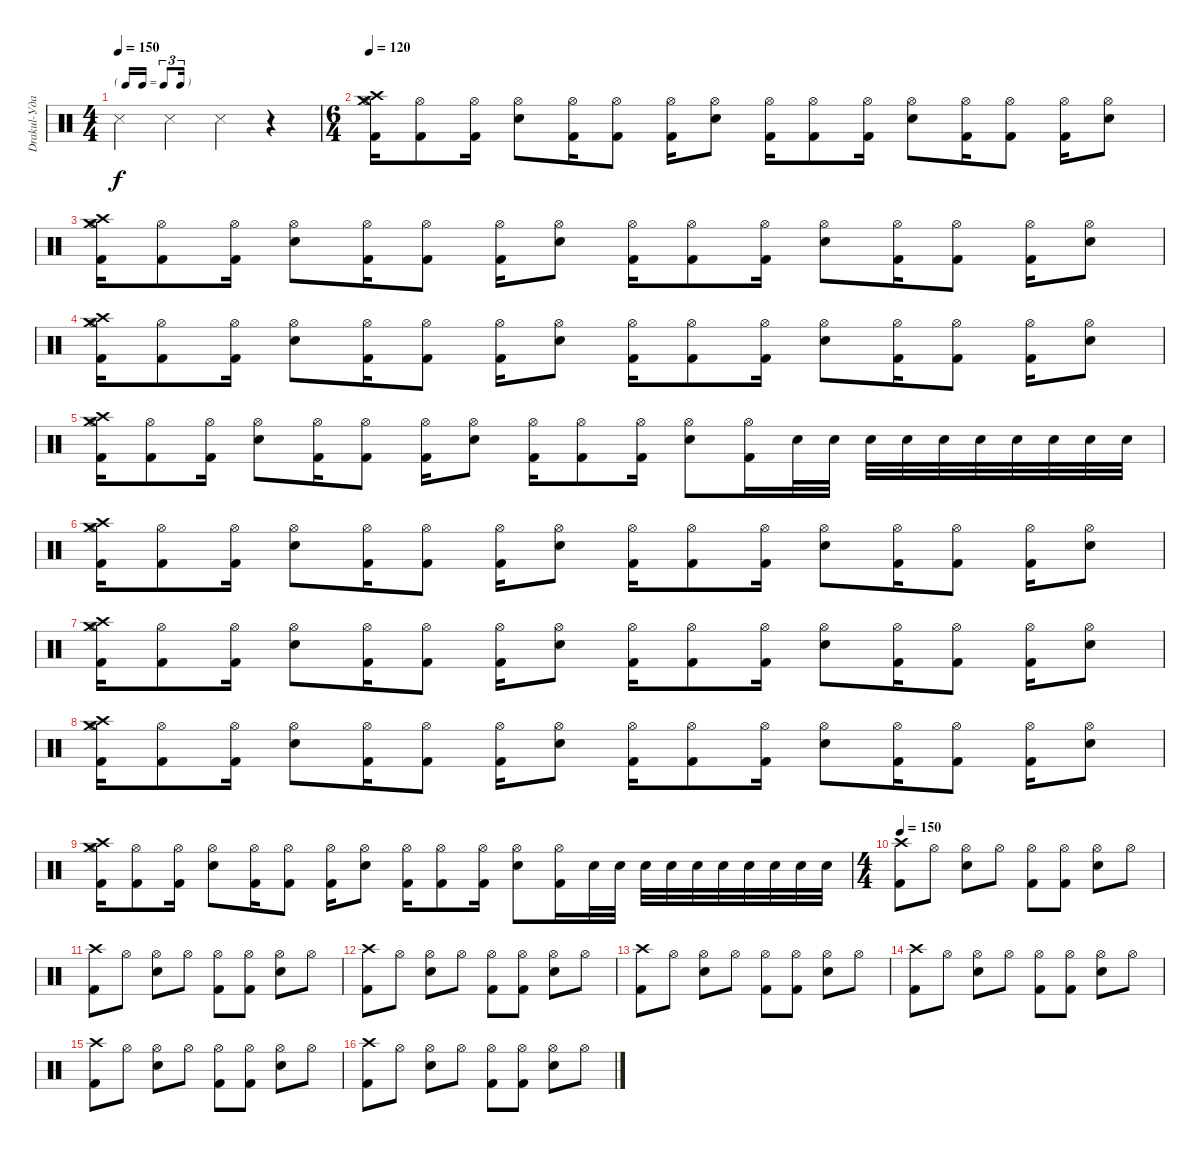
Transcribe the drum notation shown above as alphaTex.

\track ("Drakul-Ударные " "Drakul-Уда") {instrument percussion}
\staff {score}
\articulation defaults
\ts (4 4)
\tf triplet16th
\tempo 150
\clef neutral
\ks c "Snare (side stick) 3".4{dy f} "Snare (side stick) 3".4 "Snare (side stick) 3".4
r.4 |
\ts (6 4)
\tempo 120
("Kick (hit) 2" "Hi-Hat (open)" "Crash high (hit)" "Crash medium (hit)").16 ("Kick (hit) 2" "Hi-Hat (open)").8 ("Kick (hit) 2" "Hi-Hat (open)").16 ("Electric Snare (hit)" "Hi-Hat (open)").8 ("Kick (hit) 2" "Hi-Hat (open)").16 ("Kick (hit) 2" "Hi-Hat (open)").8 ("Kick (hit) 2" "Hi-Hat (open)").16 ("Electric Snare (hit)" "Hi-Hat (open)").8 ("Kick (hit) 2" "Hi-Hat (open)").16 ("Kick (hit) 2" "Hi-Hat (open)").8 ("Kick (hit) 2" "Hi-Hat (open)").16 ("Electric Snare (hit)" "Hi-Hat (open)").8 ("Kick (hit) 2" "Hi-Hat (open)").16 ("Kick (hit) 2" "Hi-Hat (open)").8 ("Kick (hit) 2" "Hi-Hat (open)").16 ("Electric Snare (hit)" "Hi-Hat (open)").8 |
("Kick (hit) 2" "Hi-Hat (open)" "Crash high (hit)" "Crash medium (hit)").16 ("Kick (hit) 2" "Hi-Hat (open)").8 ("Kick (hit) 2" "Hi-Hat (open)").16 ("Electric Snare (hit)" "Hi-Hat (open)").8 ("Kick (hit) 2" "Hi-Hat (open)").16 ("Kick (hit) 2" "Hi-Hat (open)").8 ("Kick (hit) 2" "Hi-Hat (open)").16 ("Electric Snare (hit)" "Hi-Hat (open)").8 ("Kick (hit) 2" "Hi-Hat (open)").16 ("Kick (hit) 2" "Hi-Hat (open)").8 ("Kick (hit) 2" "Hi-Hat (open)").16 ("Electric Snare (hit)" "Hi-Hat (open)").8 ("Kick (hit) 2" "Hi-Hat (open)").16 ("Kick (hit) 2" "Hi-Hat (open)").8 ("Kick (hit) 2" "Hi-Hat (open)").16 ("Electric Snare (hit)" "Hi-Hat (open)").8 |
("Kick (hit) 2" "Hi-Hat (open)" "Crash high (hit)" "Crash medium (hit)").16 ("Kick (hit) 2" "Hi-Hat (open)").8 ("Kick (hit) 2" "Hi-Hat (open)").16 ("Electric Snare (hit)" "Hi-Hat (open)").8 ("Kick (hit) 2" "Hi-Hat (open)").16 ("Kick (hit) 2" "Hi-Hat (open)").8 ("Kick (hit) 2" "Hi-Hat (open)").16 ("Electric Snare (hit)" "Hi-Hat (open)").8 ("Kick (hit) 2" "Hi-Hat (open)").16 ("Kick (hit) 2" "Hi-Hat (open)").8 ("Kick (hit) 2" "Hi-Hat (open)").16 ("Electric Snare (hit)" "Hi-Hat (open)").8 ("Kick (hit) 2" "Hi-Hat (open)").16 ("Kick (hit) 2" "Hi-Hat (open)").8 ("Kick (hit) 2" "Hi-Hat (open)").16 ("Electric Snare (hit)" "Hi-Hat (open)").8 |
("Kick (hit) 2" "Hi-Hat (open)" "Crash high (hit)" "Crash medium (hit)").16 ("Kick (hit) 2" "Hi-Hat (open)").8 ("Kick (hit) 2" "Hi-Hat (open)").16 ("Electric Snare (hit)" "Hi-Hat (open)").8 ("Kick (hit) 2" "Hi-Hat (open)").16 ("Kick (hit) 2" "Hi-Hat (open)").8 ("Kick (hit) 2" "Hi-Hat (open)").16 ("Electric Snare (hit)" "Hi-Hat (open)").8 ("Kick (hit) 2" "Hi-Hat (open)").16 ("Kick (hit) 2" "Hi-Hat (open)").8 ("Kick (hit) 2" "Hi-Hat (open)").16 ("Electric Snare (hit)" "Hi-Hat (open)").8 ("Kick (hit) 2" "Hi-Hat (open)").16 "Electric Snare (hit)".32 "Electric Snare (hit)".32 "Electric Snare (hit)".32 "Electric Snare (hit)".32 "Electric Snare (hit)".32 "Electric Snare (hit)".32 "Electric Snare (hit)".32 "Electric Snare (hit)".32 "Electric Snare (hit)".32 "Electric Snare (hit)".32 |
("Kick (hit) 2" "Hi-Hat (open)" "Crash high (hit)" "Crash medium (hit)").16 ("Kick (hit) 2" "Hi-Hat (open)").8 ("Kick (hit) 2" "Hi-Hat (open)").16 ("Electric Snare (hit)" "Hi-Hat (open)").8 ("Kick (hit) 2" "Hi-Hat (open)").16 ("Kick (hit) 2" "Hi-Hat (open)").8 ("Kick (hit) 2" "Hi-Hat (open)").16 ("Electric Snare (hit)" "Hi-Hat (open)").8 ("Kick (hit) 2" "Hi-Hat (open)").16 ("Kick (hit) 2" "Hi-Hat (open)").8 ("Kick (hit) 2" "Hi-Hat (open)").16 ("Electric Snare (hit)" "Hi-Hat (open)").8 ("Kick (hit) 2" "Hi-Hat (open)").16 ("Kick (hit) 2" "Hi-Hat (open)").8 ("Kick (hit) 2" "Hi-Hat (open)").16 ("Electric Snare (hit)" "Hi-Hat (open)").8 |
("Kick (hit) 2" "Hi-Hat (open)" "Crash high (hit)" "Crash medium (hit)").16 ("Kick (hit) 2" "Hi-Hat (open)").8 ("Kick (hit) 2" "Hi-Hat (open)").16 ("Electric Snare (hit)" "Hi-Hat (open)").8 ("Kick (hit) 2" "Hi-Hat (open)").16 ("Kick (hit) 2" "Hi-Hat (open)").8 ("Kick (hit) 2" "Hi-Hat (open)").16 ("Electric Snare (hit)" "Hi-Hat (open)").8 ("Kick (hit) 2" "Hi-Hat (open)").16 ("Kick (hit) 2" "Hi-Hat (open)").8 ("Kick (hit) 2" "Hi-Hat (open)").16 ("Electric Snare (hit)" "Hi-Hat (open)").8 ("Kick (hit) 2" "Hi-Hat (open)").16 ("Kick (hit) 2" "Hi-Hat (open)").8 ("Kick (hit) 2" "Hi-Hat (open)").16 ("Electric Snare (hit)" "Hi-Hat (open)").8 |
("Kick (hit) 2" "Hi-Hat (open)" "Crash high (hit)" "Crash medium (hit)").16 ("Kick (hit) 2" "Hi-Hat (open)").8 ("Kick (hit) 2" "Hi-Hat (open)").16 ("Electric Snare (hit)" "Hi-Hat (open)").8 ("Kick (hit) 2" "Hi-Hat (open)").16 ("Kick (hit) 2" "Hi-Hat (open)").8 ("Kick (hit) 2" "Hi-Hat (open)").16 ("Electric Snare (hit)" "Hi-Hat (open)").8 ("Kick (hit) 2" "Hi-Hat (open)").16 ("Kick (hit) 2" "Hi-Hat (open)").8 ("Kick (hit) 2" "Hi-Hat (open)").16 ("Electric Snare (hit)" "Hi-Hat (open)").8 ("Kick (hit) 2" "Hi-Hat (open)").16 ("Kick (hit) 2" "Hi-Hat (open)").8 ("Kick (hit) 2" "Hi-Hat (open)").16 ("Electric Snare (hit)" "Hi-Hat (open)").8 |
("Kick (hit) 2" "Hi-Hat (open)" "Crash high (hit)" "Crash medium (hit)").16 ("Kick (hit) 2" "Hi-Hat (open)").8 ("Kick (hit) 2" "Hi-Hat (open)").16 ("Electric Snare (hit)" "Hi-Hat (open)").8 ("Kick (hit) 2" "Hi-Hat (open)").16 ("Kick (hit) 2" "Hi-Hat (open)").8 ("Kick (hit) 2" "Hi-Hat (open)").16 ("Electric Snare (hit)" "Hi-Hat (open)").8 ("Kick (hit) 2" "Hi-Hat (open)").16 ("Kick (hit) 2" "Hi-Hat (open)").8 ("Kick (hit) 2" "Hi-Hat (open)").16 ("Electric Snare (hit)" "Hi-Hat (open)").8 ("Kick (hit) 2" "Hi-Hat (open)").16 "Electric Snare (hit)".32 "Electric Snare (hit)".32 "Electric Snare (hit)".32 "Electric Snare (hit)".32 "Electric Snare (hit)".32 "Electric Snare (hit)".32 "Electric Snare (hit)".32 "Electric Snare (hit)".32 "Electric Snare (hit)".32 "Electric Snare (hit)".32 |
\ts (4 4)
\tempo 150
("Kick (hit) 2" "Crash high (hit)").8 "Hi-Hat (open)".8 ("Electric Snare (hit)" "Hi-Hat (open)").8 "Hi-Hat (open)".8 ("Kick (hit) 2" "Hi-Hat (open)").8 ("Kick (hit) 2" "Hi-Hat (open)").8 ("Electric Snare (hit)" "Hi-Hat (open)").8 "Hi-Hat (open)".8 |
("Kick (hit) 2" "Crash high (hit)").8 "Hi-Hat (open)".8 ("Electric Snare (hit)" "Hi-Hat (open)").8 "Hi-Hat (open)".8 ("Kick (hit) 2" "Hi-Hat (open)").8 ("Kick (hit) 2" "Hi-Hat (open)").8 ("Electric Snare (hit)" "Hi-Hat (open)").8 "Hi-Hat (open)".8 |
("Kick (hit) 2" "Crash high (hit)").8 "Hi-Hat (open)".8 ("Electric Snare (hit)" "Hi-Hat (open)").8 "Hi-Hat (open)".8 ("Kick (hit) 2" "Hi-Hat (open)").8 ("Kick (hit) 2" "Hi-Hat (open)").8 ("Electric Snare (hit)" "Hi-Hat (open)").8 "Hi-Hat (open)".8 |
("Kick (hit) 2" "Crash high (hit)").8 "Hi-Hat (open)".8 ("Electric Snare (hit)" "Hi-Hat (open)").8 "Hi-Hat (open)".8 ("Kick (hit) 2" "Hi-Hat (open)").8 ("Kick (hit) 2" "Hi-Hat (open)").8 ("Electric Snare (hit)" "Hi-Hat (open)").8 "Hi-Hat (open)".8 |
("Kick (hit) 2" "Crash high (hit)").8 "Hi-Hat (open)".8 ("Electric Snare (hit)" "Hi-Hat (open)").8 "Hi-Hat (open)".8 ("Kick (hit) 2" "Hi-Hat (open)").8 ("Kick (hit) 2" "Hi-Hat (open)").8 ("Electric Snare (hit)" "Hi-Hat (open)").8 "Hi-Hat (open)".8 |
("Kick (hit) 2" "Crash high (hit)").8 "Hi-Hat (open)".8 ("Electric Snare (hit)" "Hi-Hat (open)").8 "Hi-Hat (open)".8 ("Kick (hit) 2" "Hi-Hat (open)").8 ("Kick (hit) 2" "Hi-Hat (open)").8 ("Electric Snare (hit)" "Hi-Hat (open)").8 "Hi-Hat (open)".8 |
("Kick (hit) 2" "Crash high (hit)").8 "Hi-Hat (open)".8 ("Electric Snare (hit)" "Hi-Hat (open)").8 "Hi-Hat (open)".8 ("Kick (hit) 2" "Hi-Hat (open)").8 ("Kick (hit) 2" "Hi-Hat (open)").8 ("Electric Snare (hit)" "Hi-Hat (open)").8 "Hi-Hat (open)".8
